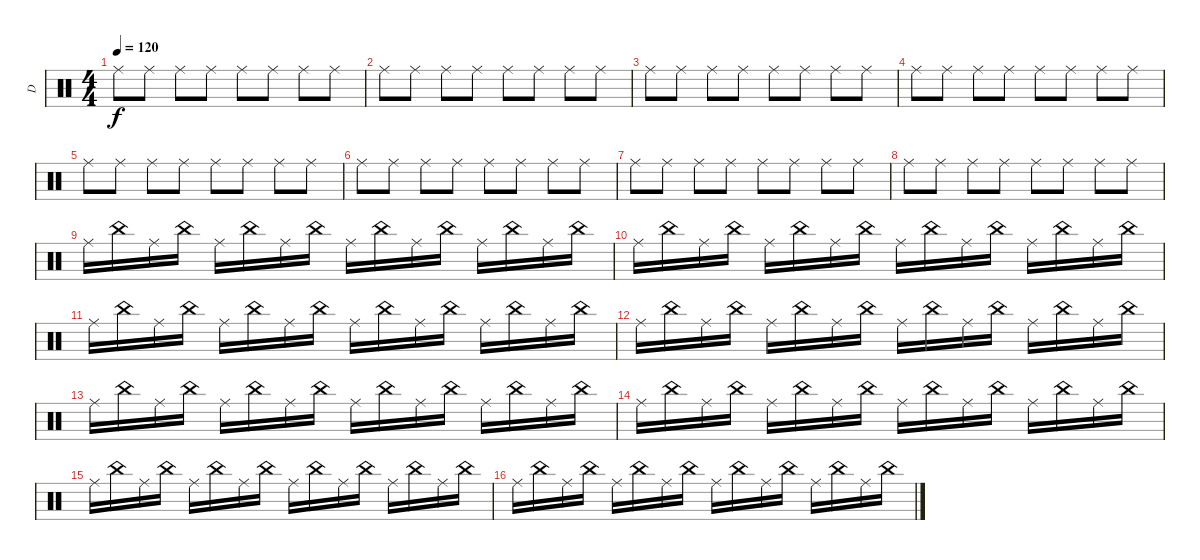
\track ("D" "D") {instrument percussion}
\staff {score}
\articulation defaults
\ts (4 4)
\tempo 120
\clef neutral
\ks c "Ride (middle)".8{dy f} "Ride (middle)".8 "Ride (middle)".8 "Ride (middle)".8 "Ride (middle)".8 "Ride (middle)".8 "Ride (middle)".8 "Ride (middle)".8
|
"Ride (middle)".8 "Ride (middle)".8 "Ride (middle)".8 "Ride (middle)".8 "Ride (middle)".8 "Ride (middle)".8 "Ride (middle)".8 "Ride (middle)".8 |
"Ride (middle)".8 "Ride (middle)".8 "Ride (middle)".8 "Ride (middle)".8 "Ride (middle)".8 "Ride (middle)".8 "Ride (middle)".8 "Ride (middle)".8 |
"Ride (middle)".8 "Ride (middle)".8 "Ride (middle)".8 "Ride (middle)".8 "Ride (middle)".8 "Ride (middle)".8 "Ride (middle)".8 "Ride (middle)".8 |
"Ride (middle)".8 "Ride (middle)".8 "Ride (middle)".8 "Ride (middle)".8 "Ride (middle)".8 "Ride (middle)".8 "Ride (middle)".8 "Ride (middle)".8 |
"Ride (middle)".8 "Ride (middle)".8 "Ride (middle)".8 "Ride (middle)".8 "Ride (middle)".8 "Ride (middle)".8 "Ride (middle)".8 "Ride (middle)".8 |
"Ride (middle)".8 "Ride (middle)".8 "Ride (middle)".8 "Ride (middle)".8 "Ride (middle)".8 "Ride (middle)".8 "Ride (middle)".8 "Ride (middle)".8 |
"Ride (middle)".8 "Ride (middle)".8 "Ride (middle)".8 "Ride (middle)".8 "Ride (middle)".8 "Ride (middle)".8 "Ride (middle)".8 "Ride (middle)".8 |
"Ride (middle)".16 "China (hit)".16 "Ride (middle)".16 "China (hit)".16 "Ride (middle)".16 "China (hit)".16 "Ride (middle)".16 "China (hit)".16 "Ride (middle)".16 "China (hit)".16 "Ride (middle)".16 "China (hit)".16 "Ride (middle)".16 "China (hit)".16 "Ride (middle)".16 "China (hit)".16 |
"Ride (middle)".16 "China (hit)".16 "Ride (middle)".16 "China (hit)".16 "Ride (middle)".16 "China (hit)".16 "Ride (middle)".16 "China (hit)".16 "Ride (middle)".16 "China (hit)".16 "Ride (middle)".16 "China (hit)".16 "Ride (middle)".16 "China (hit)".16 "Ride (middle)".16 "China (hit)".16 |
"Ride (middle)".16 "China (hit)".16 "Ride (middle)".16 "China (hit)".16 "Ride (middle)".16 "China (hit)".16 "Ride (middle)".16 "China (hit)".16 "Ride (middle)".16 "China (hit)".16 "Ride (middle)".16 "China (hit)".16 "Ride (middle)".16 "China (hit)".16 "Ride (middle)".16 "China (hit)".16 |
"Ride (middle)".16 "China (hit)".16 "Ride (middle)".16 "China (hit)".16 "Ride (middle)".16 "China (hit)".16 "Ride (middle)".16 "China (hit)".16 "Ride (middle)".16 "China (hit)".16 "Ride (middle)".16 "China (hit)".16 "Ride (middle)".16 "China (hit)".16 "Ride (middle)".16 "China (hit)".16 |
"Ride (middle)".16 "China (hit)".16 "Ride (middle)".16 "China (hit)".16 "Ride (middle)".16 "China (hit)".16 "Ride (middle)".16 "China (hit)".16 "Ride (middle)".16 "China (hit)".16 "Ride (middle)".16 "China (hit)".16 "Ride (middle)".16 "China (hit)".16 "Ride (middle)".16 "China (hit)".16 |
"Ride (middle)".16 "China (hit)".16 "Ride (middle)".16 "China (hit)".16 "Ride (middle)".16 "China (hit)".16 "Ride (middle)".16 "China (hit)".16 "Ride (middle)".16 "China (hit)".16 "Ride (middle)".16 "China (hit)".16 "Ride (middle)".16 "China (hit)".16 "Ride (middle)".16 "China (hit)".16 |
"Ride (middle)".16 "China (hit)".16 "Ride (middle)".16 "China (hit)".16 "Ride (middle)".16 "China (hit)".16 "Ride (middle)".16 "China (hit)".16 "Ride (middle)".16 "China (hit)".16 "Ride (middle)".16 "China (hit)".16 "Ride (middle)".16 "China (hit)".16 "Ride (middle)".16 "China (hit)".16 |
"Ride (middle)".16 "China (hit)".16 "Ride (middle)".16 "China (hit)".16 "Ride (middle)".16 "China (hit)".16 "Ride (middle)".16 "China (hit)".16 "Ride (middle)".16 "China (hit)".16 "Ride (middle)".16 "China (hit)".16 "Ride (middle)".16 "China (hit)".16 "Ride (middle)".16 "China (hit)".16
